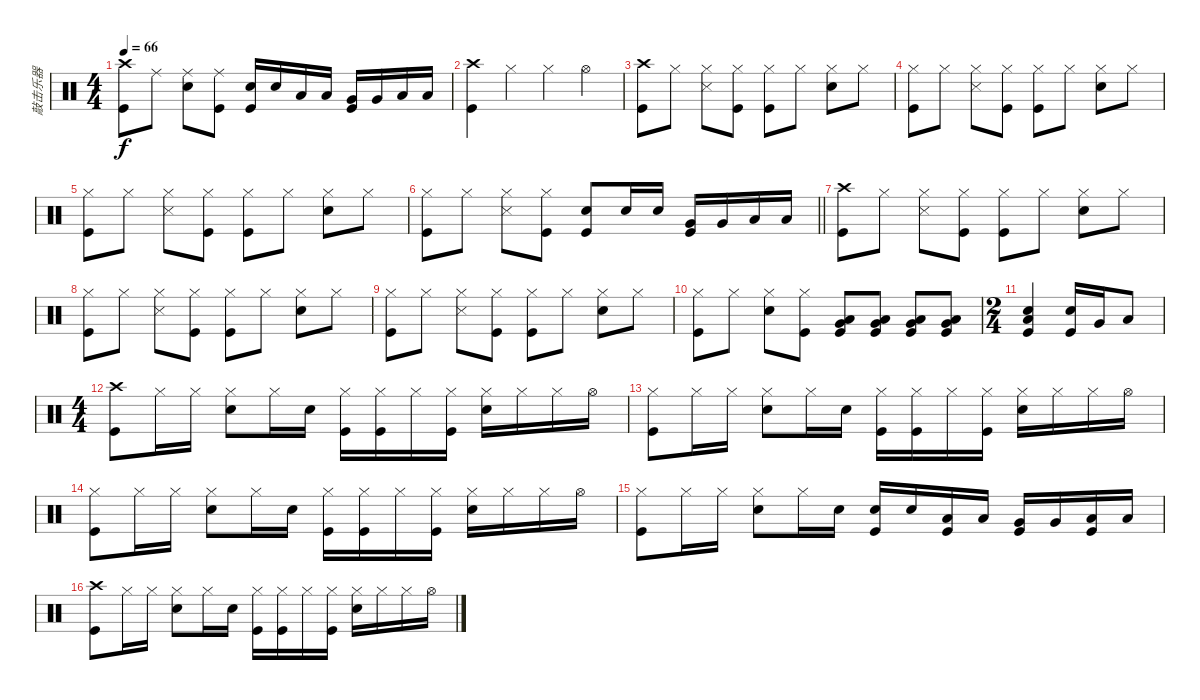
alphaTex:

\track ("敲击乐器" "敲击乐器") {instrument percussion}
\staff {score}
\articulation defaults
\ts (4 4)
\tempo 66
\clef neutral
\ks c
("Kick (hit)" "Crash high (hit)").8{dy f} "Ride (middle)".8 ("Snare (hit) 2" "Ride (middle)").8 ("Kick (hit)" "Ride (middle)").8 ("Snare (hit) 2" "Kick (hit)").16 "Snare (hit) 2".16 "Low Tom (hit)".16 "Low Tom (hit)".16 ("Very Low Tom (hit)" "Kick (hit)").16 "Very Low Tom (hit)".16 "Low Floor Tom (hit)".16 "Low Floor Tom (hit)".16 |
("Kick (hit)" "Crash high (hit)").4 "Hi-Hat (closed)".4 "Hi-Hat (closed)".4 "Hi-Hat (open)".4 |
("Kick (hit)" "Crash high (hit)").8 "Hi-Hat (closed)".8 ("Snare (side stick) 3" "Hi-Hat (closed)").8 ("Kick (hit)" "Hi-Hat (closed)").8 ("Kick (hit)" "Hi-Hat (closed)").8 "Hi-Hat (closed)".8 ("Snare (hit) 2" "Hi-Hat (closed)").8 "Hi-Hat (closed)".8 |
("Kick (hit)" "Hi-Hat (closed)").8 "Hi-Hat (closed)".8 ("Snare (side stick) 3" "Hi-Hat (closed)").8 ("Kick (hit)" "Hi-Hat (closed)").8 ("Kick (hit)" "Hi-Hat (closed)").8 "Hi-Hat (closed)".8 ("Snare (hit) 2" "Hi-Hat (closed)").8 "Hi-Hat (closed)".8 |
("Kick (hit)" "Hi-Hat (closed)").8 "Hi-Hat (closed)".8 ("Snare (side stick) 3" "Hi-Hat (closed)").8 ("Kick (hit)" "Hi-Hat (closed)").8 ("Kick (hit)" "Hi-Hat (closed)").8 "Hi-Hat (closed)".8 ("Snare (hit) 2" "Hi-Hat (closed)").8 "Hi-Hat (closed)".8 |
\barLineRight lightlight
("Kick (hit)" "Hi-Hat (closed)").8 "Hi-Hat (closed)".8 ("Snare (side stick) 3" "Hi-Hat (closed)").8 ("Kick (hit)" "Hi-Hat (closed)").8 ("Kick (hit)" "Snare (hit) 2").8 "Snare (hit) 2".16 "Snare (hit) 2".16 ("Very Low Tom (hit)" "Kick (hit)").16 "Very Low Tom (hit)".16 "Low Floor Tom (hit)".16 "Low Floor Tom (hit)".16 |
("Kick (hit)" "Crash high (hit)").8 "Hi-Hat (closed)".8 ("Snare (side stick) 3" "Hi-Hat (closed)").8 ("Kick (hit)" "Hi-Hat (closed)").8 ("Kick (hit)" "Hi-Hat (closed)").8 "Hi-Hat (closed)".8 ("Snare (hit) 2" "Hi-Hat (closed)").8 "Hi-Hat (closed)".8 |
("Kick (hit)" "Hi-Hat (closed)").8 "Hi-Hat (closed)".8 ("Snare (side stick) 3" "Hi-Hat (closed)").8 ("Kick (hit)" "Hi-Hat (closed)").8 ("Kick (hit)" "Hi-Hat (closed)").8 "Hi-Hat (closed)".8 ("Snare (hit) 2" "Hi-Hat (closed)").8 "Hi-Hat (closed)".8 |
("Kick (hit)" "Hi-Hat (closed)").8 "Hi-Hat (closed)".8 ("Snare (side stick) 3" "Hi-Hat (closed)").8 ("Kick (hit)" "Hi-Hat (closed)").8 ("Kick (hit)" "Hi-Hat (closed)").8 "Hi-Hat (closed)".8 ("Snare (hit) 2" "Hi-Hat (closed)").8 "Hi-Hat (closed)".8 |
("Kick (hit)" "Hi-Hat (closed)").8 "Hi-Hat (closed)".8 ("Snare (hit) 2" "Hi-Hat (closed)").8 ("Kick (hit)" "Hi-Hat (closed)").8 ("Very Low Tom (hit)" "Low Floor Tom (hit)" "Kick (hit)").8 ("Very Low Tom (hit)" "Low Floor Tom (hit)" "Kick (hit)").8 ("Very Low Tom (hit)" "Low Floor Tom (hit)" "Kick (hit)").8 ("Very Low Tom (hit)" "Low Floor Tom (hit)" "Kick (hit)").8 |
\ts (2 4)
("Snare (hit) 2" "Low Floor Tom (hit)" "Kick (hit)").4 ("Snare (hit) 2" "Kick (hit)").16 "Very Low Tom (hit)".16 "Low Floor Tom (hit)".8 |
\ts (4 4)
("Crash high (hit)" "Kick (hit)").8 "Hi-Hat (closed)".16 "Hi-Hat (closed)".16 ("Snare (hit) 2" "Hi-Hat (closed)").8 "Hi-Hat (closed)".16 "Snare (hit) 2".16 ("Kick (hit)" "Hi-Hat (closed)").16 ("Kick (hit)" "Hi-Hat (closed)").16 "Hi-Hat (closed)".16 ("Kick (hit)" "Hi-Hat (closed)").16 ("Snare (hit) 2" "Hi-Hat (closed)").16 "Hi-Hat (closed)".16 "Hi-Hat (closed)".16 "Hi-Hat (open)".16 |
("Hi-Hat (closed)" "Kick (hit)").8 "Hi-Hat (closed)".16 "Hi-Hat (closed)".16 ("Snare (hit) 2" "Hi-Hat (closed)").8 "Hi-Hat (closed)".16 "Snare (hit) 2".16 ("Kick (hit)" "Hi-Hat (closed)").16 ("Kick (hit)" "Hi-Hat (closed)").16 "Hi-Hat (closed)".16 ("Kick (hit)" "Hi-Hat (closed)").16 ("Snare (hit) 2" "Hi-Hat (closed)").16 "Hi-Hat (closed)".16 "Hi-Hat (closed)".16 "Hi-Hat (open)".16 |
("Hi-Hat (closed)" "Kick (hit)").8 "Hi-Hat (closed)".16 "Hi-Hat (closed)".16 ("Snare (hit) 2" "Hi-Hat (closed)").8 "Hi-Hat (closed)".16 "Snare (hit) 2".16 ("Kick (hit)" "Hi-Hat (closed)").16 ("Kick (hit)" "Hi-Hat (closed)").16 "Hi-Hat (closed)".16 ("Kick (hit)" "Hi-Hat (closed)").16 ("Snare (hit) 2" "Hi-Hat (closed)").16 "Hi-Hat (closed)".16 "Hi-Hat (closed)".16 "Hi-Hat (open)".16 |
("Hi-Hat (closed)" "Kick (hit)").8 "Hi-Hat (closed)".16 "Hi-Hat (closed)".16 ("Snare (hit) 2" "Hi-Hat (closed)").8 "Hi-Hat (closed)".16 "Snare (hit) 2".16 ("Snare (hit) 2" "Kick (hit)").16 "Snare (hit) 2".16 ("Low Tom (hit)" "Kick (hit)").16 "Low Tom (hit)".16 ("Very Low Tom (hit)" "Kick (hit)").16 "Very Low Tom (hit)".16 ("Low Floor Tom (hit)" "Kick (hit)").16 "Low Floor Tom (hit)".16 |
("Crash high (hit)" "Kick (hit)").8 "Hi-Hat (closed)".16 "Hi-Hat (closed)".16 ("Snare (hit) 2" "Hi-Hat (closed)").8 "Hi-Hat (closed)".16 "Snare (hit) 2".16 ("Kick (hit)" "Hi-Hat (closed)").16 ("Kick (hit)" "Hi-Hat (closed)").16 "Hi-Hat (closed)".16 ("Kick (hit)" "Hi-Hat (closed)").16 ("Snare (hit) 2" "Hi-Hat (closed)").16 "Hi-Hat (closed)".16 "Hi-Hat (closed)".16 "Hi-Hat (open)".16
